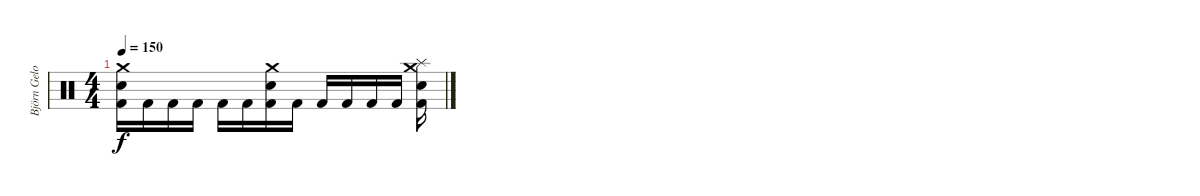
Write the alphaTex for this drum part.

\track ("Björn Gelotte" "Björn Gelo") {instrument percussion}
\staff {score}
\articulation defaults
\ts (4 4)
\tempo 150
\clef neutral
\ks c
("Crash medium (hit)" "Electric Snare (hit)" "Kick (hit) 2").16{dy f} "Kick (hit) 2".16 "Kick (hit) 2".16 "Kick (hit) 2".16 "Kick (hit) 2".16 "Kick (hit) 2".16 ("Crash medium (hit)" "Electric Snare (hit)" "Kick (hit) 2").16 "Kick (hit) 2".16 "Kick (hit) 2".16 "Kick (hit) 2".16 "Kick (hit) 2".16 "Kick (hit) 2".16 ("Crash medium (hit)" "Splash (hit)" "Electric Snare (hit)" "Kick (hit) 2").16
